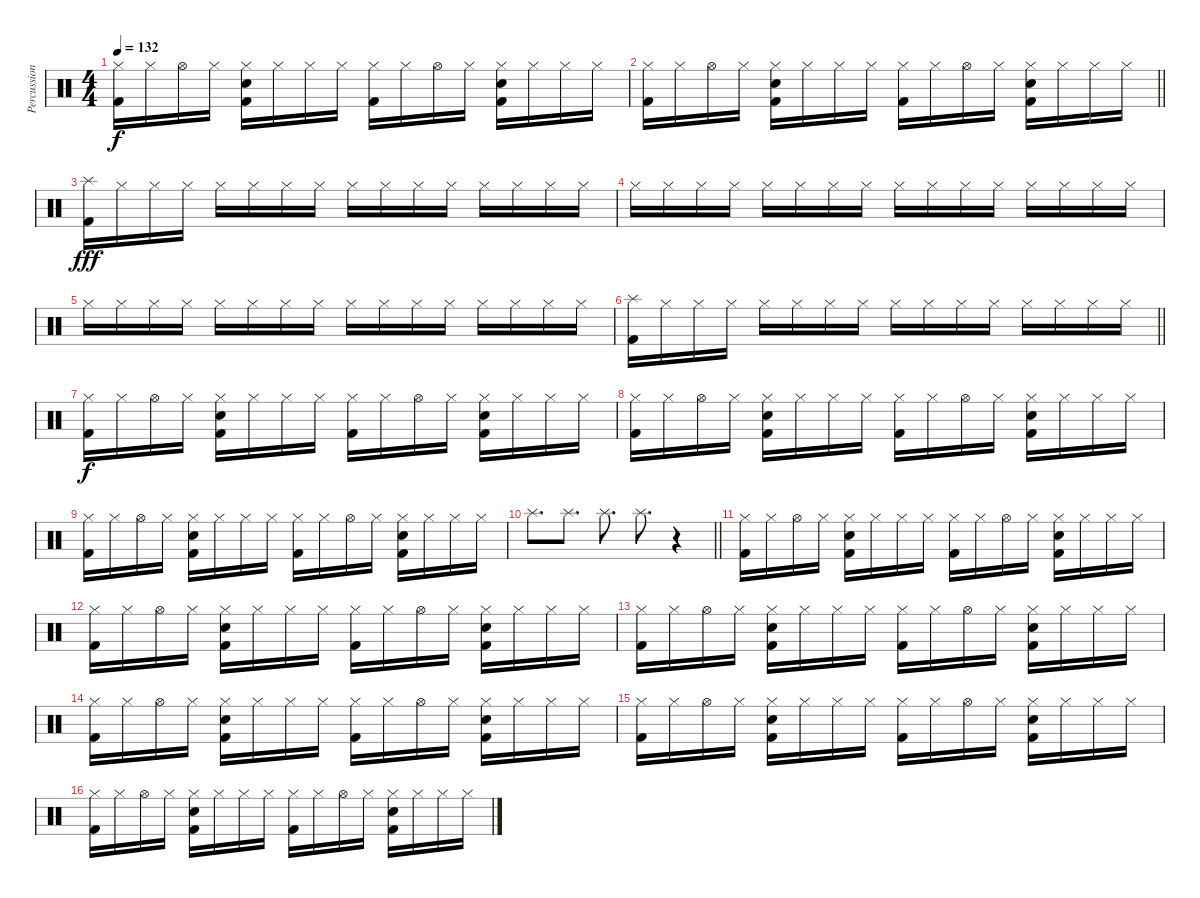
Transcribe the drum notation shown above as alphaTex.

\track ("Percussion I" "Percussion") {instrument percussion}
\staff {score}
\articulation defaults
\ts (4 4)
\tempo 132
\clef neutral
\ks c
("Hi-Hat (closed)" "Kick (hit) 2").16{dy f} "Hi-Hat (closed)".16 "Hi-Hat (open)".16 "Hi-Hat (closed)".16 ("Hi-Hat (closed)" "Hand Clap (hit)" "Kick (hit) 2").16 "Hi-Hat (closed)".16 "Hi-Hat (closed)".16 "Hi-Hat (closed)".16 ("Hi-Hat (closed)" "Kick (hit) 2").16 "Hi-Hat (closed)".16 "Hi-Hat (open)".16 "Hi-Hat (closed)".16 ("Hi-Hat (closed)" "Hand Clap (hit)" "Kick (hit) 2").16 "Hi-Hat (closed)".16 "Hi-Hat (closed)".16 "Hi-Hat (closed)".16 |
\barLineRight lightlight
("Hi-Hat (closed)" "Kick (hit) 2").16 "Hi-Hat (closed)".16 "Hi-Hat (open)".16 "Hi-Hat (closed)".16 ("Hi-Hat (closed)" "Hand Clap (hit)" "Kick (hit) 2").16 "Hi-Hat (closed)".16 "Hi-Hat (closed)".16 "Hi-Hat (closed)".16 ("Hi-Hat (closed)" "Kick (hit) 2").16 "Hi-Hat (closed)".16 "Hi-Hat (open)".16 "Hi-Hat (closed)".16 ("Hi-Hat (closed)" "Hand Clap (hit)" "Kick (hit) 2").16 "Hi-Hat (closed)".16 "Hi-Hat (closed)".16 "Hi-Hat (closed)".16 |
\section ("" "")
("Splash (hit)" "Kick (hit) 2").16{dy fff} "Hi-Hat (closed)".16 "Hi-Hat (closed)".16 "Hi-Hat (closed)".16 "Hi-Hat (closed)".16 "Hi-Hat (closed)".16 "Hi-Hat (closed)".16 "Hi-Hat (closed)".16 "Hi-Hat (closed)".16 "Hi-Hat (closed)".16 "Hi-Hat (closed)".16 "Hi-Hat (closed)".16 "Hi-Hat (closed)".16 "Hi-Hat (closed)".16 "Hi-Hat (closed)".16 "Hi-Hat (closed)".16 |
"Hi-Hat (closed)".16 "Hi-Hat (closed)".16 "Hi-Hat (closed)".16 "Hi-Hat (closed)".16 "Hi-Hat (closed)".16 "Hi-Hat (closed)".16 "Hi-Hat (closed)".16 "Hi-Hat (closed)".16 "Hi-Hat (closed)".16 "Hi-Hat (closed)".16 "Hi-Hat (closed)".16 "Hi-Hat (closed)".16 "Hi-Hat (closed)".16 "Hi-Hat (closed)".16 "Hi-Hat (closed)".16 "Hi-Hat (closed)".16 |
"Hi-Hat (closed)".16 "Hi-Hat (closed)".16 "Hi-Hat (closed)".16 "Hi-Hat (closed)".16 "Hi-Hat (closed)".16 "Hi-Hat (closed)".16 "Hi-Hat (closed)".16 "Hi-Hat (closed)".16 "Hi-Hat (closed)".16 "Hi-Hat (closed)".16 "Hi-Hat (closed)".16 "Hi-Hat (closed)".16 "Hi-Hat (closed)".16 "Hi-Hat (closed)".16 "Hi-Hat (closed)".16 "Hi-Hat (closed)".16 |
\barLineRight lightlight
("Splash (hit)" "Kick (hit) 2").16 "Hi-Hat (closed)".16 "Hi-Hat (closed)".16 "Hi-Hat (closed)".16 "Hi-Hat (closed)".16 "Hi-Hat (closed)".16 "Hi-Hat (closed)".16 "Hi-Hat (closed)".16 "Hi-Hat (closed)".16 "Hi-Hat (closed)".16 "Hi-Hat (closed)".16 "Hi-Hat (closed)".16 "Hi-Hat (closed)".16 "Hi-Hat (closed)".16 "Hi-Hat (closed)".16 "Hi-Hat (closed)".16 |
\section ("" "")
("Hi-Hat (closed)" "Kick (hit) 2").16{dy f} "Hi-Hat (closed)".16 "Hi-Hat (open)".16 "Hi-Hat (closed)".16 ("Hi-Hat (closed)" "Hand Clap (hit)" "Kick (hit) 2").16 "Hi-Hat (closed)".16 "Hi-Hat (closed)".16 "Hi-Hat (closed)".16 ("Hi-Hat (closed)" "Kick (hit) 2").16 "Hi-Hat (closed)".16 "Hi-Hat (open)".16 "Hi-Hat (closed)".16 ("Hi-Hat (closed)" "Hand Clap (hit)" "Kick (hit) 2").16 "Hi-Hat (closed)".16 "Hi-Hat (closed)".16 "Hi-Hat (closed)".16 |
("Hi-Hat (closed)" "Kick (hit) 2").16 "Hi-Hat (closed)".16 "Hi-Hat (open)".16 "Hi-Hat (closed)".16 ("Hi-Hat (closed)" "Hand Clap (hit)" "Kick (hit) 2").16 "Hi-Hat (closed)".16 "Hi-Hat (closed)".16 "Hi-Hat (closed)".16 ("Hi-Hat (closed)" "Kick (hit) 2").16 "Hi-Hat (closed)".16 "Hi-Hat (open)".16 "Hi-Hat (closed)".16 ("Hi-Hat (closed)" "Hand Clap (hit)" "Kick (hit) 2").16 "Hi-Hat (closed)".16 "Hi-Hat (closed)".16 "Hi-Hat (closed)".16 |
("Hi-Hat (closed)" "Kick (hit) 2").16 "Hi-Hat (closed)".16 "Hi-Hat (open)".16 "Hi-Hat (closed)".16 ("Hi-Hat (closed)" "Hand Clap (hit)" "Kick (hit) 2").16 "Hi-Hat (closed)".16 "Hi-Hat (closed)".16 "Hi-Hat (closed)".16 ("Hi-Hat (closed)" "Kick (hit) 2").16 "Hi-Hat (closed)".16 "Hi-Hat (open)".16 "Hi-Hat (closed)".16 ("Hi-Hat (closed)" "Hand Clap (hit)" "Kick (hit) 2").16 "Hi-Hat (closed)".16 "Hi-Hat (closed)".16 "Hi-Hat (closed)".16 |
\barLineRight lightlight "Splash (hit)".8{d} "Splash (hit)".8{d} "Splash (hit)".8{d} "Splash (hit)".8{d}
r.4 |
\section ("" "")
("Hi-Hat (closed)" "Kick (hit) 2").16 "Hi-Hat (closed)".16 "Hi-Hat (open)".16 "Hi-Hat (closed)".16 ("Hi-Hat (closed)" "Hand Clap (hit)" "Kick (hit) 2").16 "Hi-Hat (closed)".16 "Hi-Hat (closed)".16 "Hi-Hat (closed)".16 ("Hi-Hat (closed)" "Kick (hit) 2").16 "Hi-Hat (closed)".16 "Hi-Hat (open)".16 "Hi-Hat (closed)".16 ("Hi-Hat (closed)" "Hand Clap (hit)" "Kick (hit) 2").16 "Hi-Hat (closed)".16 "Hi-Hat (closed)".16 "Hi-Hat (closed)".16 |
("Hi-Hat (closed)" "Kick (hit) 2").16 "Hi-Hat (closed)".16 "Hi-Hat (open)".16 "Hi-Hat (closed)".16 ("Hi-Hat (closed)" "Hand Clap (hit)" "Kick (hit) 2").16 "Hi-Hat (closed)".16 "Hi-Hat (closed)".16 "Hi-Hat (closed)".16 ("Hi-Hat (closed)" "Kick (hit) 2").16 "Hi-Hat (closed)".16 "Hi-Hat (open)".16 "Hi-Hat (closed)".16 ("Hi-Hat (closed)" "Hand Clap (hit)" "Kick (hit) 2").16 "Hi-Hat (closed)".16 "Hi-Hat (closed)".16 "Hi-Hat (closed)".16 |
("Hi-Hat (closed)" "Kick (hit) 2").16 "Hi-Hat (closed)".16 "Hi-Hat (open)".16 "Hi-Hat (closed)".16 ("Hi-Hat (closed)" "Hand Clap (hit)" "Kick (hit) 2").16 "Hi-Hat (closed)".16 "Hi-Hat (closed)".16 "Hi-Hat (closed)".16 ("Hi-Hat (closed)" "Kick (hit) 2").16 "Hi-Hat (closed)".16 "Hi-Hat (open)".16 "Hi-Hat (closed)".16 ("Hi-Hat (closed)" "Hand Clap (hit)" "Kick (hit) 2").16 "Hi-Hat (closed)".16 "Hi-Hat (closed)".16 "Hi-Hat (closed)".16 |
("Hi-Hat (closed)" "Kick (hit) 2").16 "Hi-Hat (closed)".16 "Hi-Hat (open)".16 "Hi-Hat (closed)".16 ("Hi-Hat (closed)" "Hand Clap (hit)" "Kick (hit) 2").16 "Hi-Hat (closed)".16 "Hi-Hat (closed)".16 "Hi-Hat (closed)".16 ("Hi-Hat (closed)" "Kick (hit) 2").16 "Hi-Hat (closed)".16 "Hi-Hat (open)".16 "Hi-Hat (closed)".16 ("Hi-Hat (closed)" "Hand Clap (hit)" "Kick (hit) 2").16 "Hi-Hat (closed)".16 "Hi-Hat (closed)".16 "Hi-Hat (closed)".16 |
("Hi-Hat (closed)" "Kick (hit) 2").16 "Hi-Hat (closed)".16 "Hi-Hat (open)".16 "Hi-Hat (closed)".16 ("Hi-Hat (closed)" "Hand Clap (hit)" "Kick (hit) 2").16 "Hi-Hat (closed)".16 "Hi-Hat (closed)".16 "Hi-Hat (closed)".16 ("Hi-Hat (closed)" "Kick (hit) 2").16 "Hi-Hat (closed)".16 "Hi-Hat (open)".16 "Hi-Hat (closed)".16 ("Hi-Hat (closed)" "Hand Clap (hit)" "Kick (hit) 2").16 "Hi-Hat (closed)".16 "Hi-Hat (closed)".16 "Hi-Hat (closed)".16 |
("Hi-Hat (closed)" "Kick (hit) 2").16 "Hi-Hat (closed)".16 "Hi-Hat (open)".16 "Hi-Hat (closed)".16 ("Hi-Hat (closed)" "Hand Clap (hit)" "Kick (hit) 2").16 "Hi-Hat (closed)".16 "Hi-Hat (closed)".16 "Hi-Hat (closed)".16 ("Hi-Hat (closed)" "Kick (hit) 2").16 "Hi-Hat (closed)".16 "Hi-Hat (open)".16 "Hi-Hat (closed)".16 ("Hi-Hat (closed)" "Hand Clap (hit)" "Kick (hit) 2").16 "Hi-Hat (closed)".16 "Hi-Hat (closed)".16 "Hi-Hat (closed)".16
